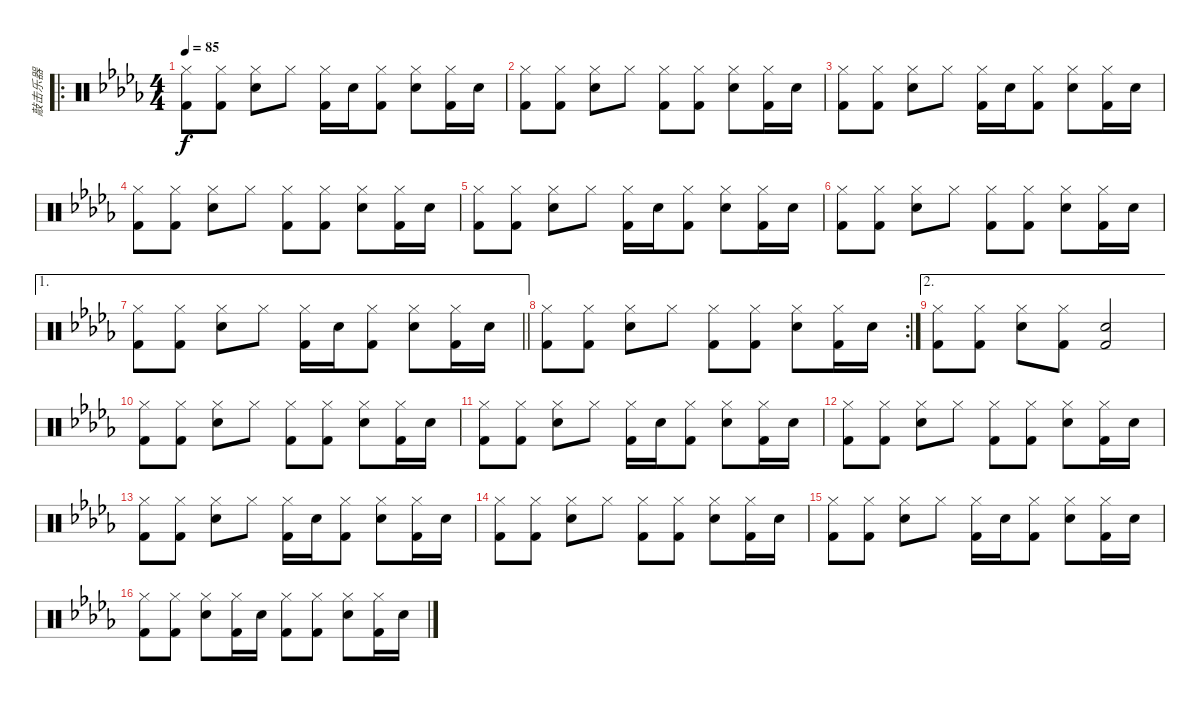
\track ("敲击乐器" "敲击乐器") {instrument percussion}
\staff {score}
\articulation defaults
\ro
\ts (4 4)
\tempo 85
\clef neutral
\ks db
("Hi-Hat (closed)" "Kick (hit) 2").8{dy f} ("Hi-Hat (closed)" "Kick (hit) 2").8 ("Hi-Hat (closed)" "Electric Snare (hit)").8 "Hi-Hat (closed)".8 ("Hi-Hat (closed)" "Kick (hit) 2").16 "Electric Snare (hit)".16 ("Hi-Hat (closed)" "Kick (hit) 2").8 ("Hi-Hat (closed)" "Electric Snare (hit)").8 ("Hi-Hat (closed)" "Kick (hit) 2").16 "Electric Snare (hit)".16 |
("Hi-Hat (closed)" "Kick (hit) 2").8 ("Hi-Hat (closed)" "Kick (hit) 2").8 ("Hi-Hat (closed)" "Electric Snare (hit)").8 "Hi-Hat (closed)".8 ("Hi-Hat (closed)" "Kick (hit) 2").8 ("Hi-Hat (closed)" "Kick (hit) 2").8 ("Hi-Hat (closed)" "Electric Snare (hit)").8 ("Hi-Hat (closed)" "Kick (hit) 2").16 "Electric Snare (hit)".16 |
("Hi-Hat (closed)" "Kick (hit) 2").8 ("Hi-Hat (closed)" "Kick (hit) 2").8 ("Hi-Hat (closed)" "Electric Snare (hit)").8 "Hi-Hat (closed)".8 ("Hi-Hat (closed)" "Kick (hit) 2").16 "Electric Snare (hit)".16 ("Hi-Hat (closed)" "Kick (hit) 2").8 ("Hi-Hat (closed)" "Electric Snare (hit)").8 ("Hi-Hat (closed)" "Kick (hit) 2").16 "Electric Snare (hit)".16 |
("Hi-Hat (closed)" "Kick (hit) 2").8 ("Hi-Hat (closed)" "Kick (hit) 2").8 ("Hi-Hat (closed)" "Electric Snare (hit)").8 "Hi-Hat (closed)".8 ("Hi-Hat (closed)" "Kick (hit) 2").8 ("Hi-Hat (closed)" "Kick (hit) 2").8 ("Hi-Hat (closed)" "Electric Snare (hit)").8 ("Hi-Hat (closed)" "Kick (hit) 2").16 "Electric Snare (hit)".16 |
("Hi-Hat (closed)" "Kick (hit) 2").8 ("Hi-Hat (closed)" "Kick (hit) 2").8 ("Hi-Hat (closed)" "Electric Snare (hit)").8 "Hi-Hat (closed)".8 ("Hi-Hat (closed)" "Kick (hit) 2").16 "Electric Snare (hit)".16 ("Hi-Hat (closed)" "Kick (hit) 2").8 ("Hi-Hat (closed)" "Electric Snare (hit)").8 ("Hi-Hat (closed)" "Kick (hit) 2").16 "Electric Snare (hit)".16 |
("Hi-Hat (closed)" "Kick (hit) 2").8 ("Hi-Hat (closed)" "Kick (hit) 2").8 ("Hi-Hat (closed)" "Electric Snare (hit)").8 "Hi-Hat (closed)".8 ("Hi-Hat (closed)" "Kick (hit) 2").8 ("Hi-Hat (closed)" "Kick (hit) 2").8 ("Hi-Hat (closed)" "Electric Snare (hit)").8 ("Hi-Hat (closed)" "Kick (hit) 2").16 "Electric Snare (hit)".16 |
\ae 1
\barLineRight lightlight
("Hi-Hat (closed)" "Kick (hit) 2").8 ("Hi-Hat (closed)" "Kick (hit) 2").8 ("Hi-Hat (closed)" "Electric Snare (hit)").8 "Hi-Hat (closed)".8 ("Hi-Hat (closed)" "Kick (hit) 2").16 "Electric Snare (hit)".16 ("Hi-Hat (closed)" "Kick (hit) 2").8 ("Hi-Hat (closed)" "Electric Snare (hit)").8 ("Hi-Hat (closed)" "Kick (hit) 2").16 "Electric Snare (hit)".16 |
\rc 2
("Hi-Hat (closed)" "Kick (hit) 2").8 ("Hi-Hat (closed)" "Kick (hit) 2").8 ("Hi-Hat (closed)" "Electric Snare (hit)").8 "Hi-Hat (closed)".8 ("Hi-Hat (closed)" "Kick (hit) 2").8 ("Hi-Hat (closed)" "Kick (hit) 2").8 ("Hi-Hat (closed)" "Electric Snare (hit)").8 ("Hi-Hat (closed)" "Kick (hit) 2").16 "Electric Snare (hit)".16 |
\ae 2
("Hi-Hat (closed)" "Kick (hit) 2").8 ("Hi-Hat (closed)" "Kick (hit) 2").8 ("Hi-Hat (closed)" "Electric Snare (hit)").8 ("Hi-Hat (closed)" "Kick (hit) 2").8 ("Electric Snare (hit)" "Kick (hit) 2").2 |
("Hi-Hat (closed)" "Kick (hit) 2").8 ("Hi-Hat (closed)" "Kick (hit) 2").8 ("Hi-Hat (closed)" "Electric Snare (hit)").8 "Hi-Hat (closed)".8 ("Hi-Hat (closed)" "Kick (hit) 2").8 ("Hi-Hat (closed)" "Kick (hit) 2").8 ("Hi-Hat (closed)" "Electric Snare (hit)").8 ("Hi-Hat (closed)" "Kick (hit) 2").16 "Electric Snare (hit)".16 |
("Hi-Hat (closed)" "Kick (hit) 2").8 ("Hi-Hat (closed)" "Kick (hit) 2").8 ("Hi-Hat (closed)" "Electric Snare (hit)").8 "Hi-Hat (closed)".8 ("Hi-Hat (closed)" "Kick (hit) 2").16 "Electric Snare (hit)".16 ("Hi-Hat (closed)" "Kick (hit) 2").8 ("Hi-Hat (closed)" "Electric Snare (hit)").8 ("Hi-Hat (closed)" "Kick (hit) 2").16 "Electric Snare (hit)".16 |
("Hi-Hat (closed)" "Kick (hit) 2").8 ("Hi-Hat (closed)" "Kick (hit) 2").8 ("Hi-Hat (closed)" "Electric Snare (hit)").8 "Hi-Hat (closed)".8 ("Hi-Hat (closed)" "Kick (hit) 2").8 ("Hi-Hat (closed)" "Kick (hit) 2").8 ("Hi-Hat (closed)" "Electric Snare (hit)").8 ("Hi-Hat (closed)" "Kick (hit) 2").16 "Electric Snare (hit)".16 |
("Hi-Hat (closed)" "Kick (hit) 2").8 ("Hi-Hat (closed)" "Kick (hit) 2").8 ("Hi-Hat (closed)" "Electric Snare (hit)").8 "Hi-Hat (closed)".8 ("Hi-Hat (closed)" "Kick (hit) 2").16 "Electric Snare (hit)".16 ("Hi-Hat (closed)" "Kick (hit) 2").8 ("Hi-Hat (closed)" "Electric Snare (hit)").8 ("Hi-Hat (closed)" "Kick (hit) 2").16 "Electric Snare (hit)".16 |
("Hi-Hat (closed)" "Kick (hit) 2").8 ("Hi-Hat (closed)" "Kick (hit) 2").8 ("Hi-Hat (closed)" "Electric Snare (hit)").8 "Hi-Hat (closed)".8 ("Hi-Hat (closed)" "Kick (hit) 2").8 ("Hi-Hat (closed)" "Kick (hit) 2").8 ("Hi-Hat (closed)" "Electric Snare (hit)").8 ("Hi-Hat (closed)" "Kick (hit) 2").16 "Electric Snare (hit)".16 |
("Hi-Hat (closed)" "Kick (hit) 2").8 ("Hi-Hat (closed)" "Kick (hit) 2").8 ("Hi-Hat (closed)" "Electric Snare (hit)").8 "Hi-Hat (closed)".8 ("Hi-Hat (closed)" "Kick (hit) 2").16 "Electric Snare (hit)".16 ("Hi-Hat (closed)" "Kick (hit) 2").8 ("Hi-Hat (closed)" "Electric Snare (hit)").8 ("Hi-Hat (closed)" "Kick (hit) 2").16 "Electric Snare (hit)".16 |
("Hi-Hat (closed)" "Kick (hit) 2").8 ("Hi-Hat (closed)" "Kick (hit) 2").8 ("Hi-Hat (closed)" "Electric Snare (hit)").8 ("Hi-Hat (closed)" "Kick (hit) 2").16 "Electric Snare (hit)".16 ("Hi-Hat (closed)" "Kick (hit) 2").8 ("Hi-Hat (closed)" "Kick (hit) 2").8 ("Hi-Hat (closed)" "Electric Snare (hit)").8 ("Hi-Hat (closed)" "Kick (hit) 2").16 "Electric Snare (hit)".16
